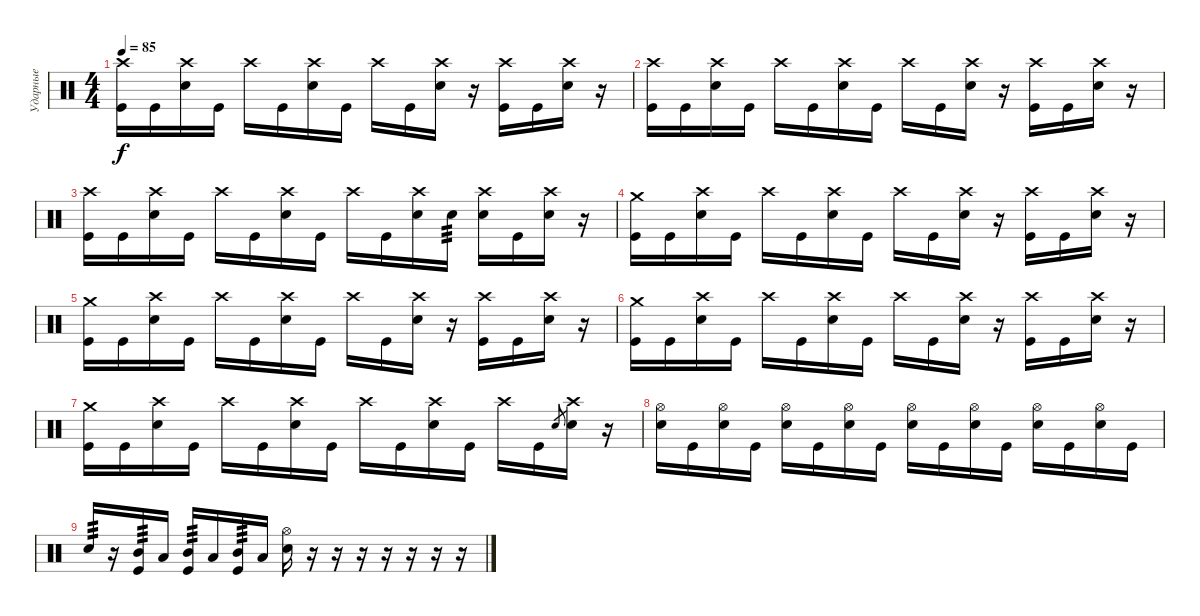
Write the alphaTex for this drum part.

\track ("Ударные" "Ударные") {instrument percussion}
\staff {score}
\articulation defaults
\ts (4 4)
\tempo 85
\clef neutral
\ks c
("Crash high (hit)" "Kick (hit)").16{dy f} "Kick (hit)".16 ("Crash high (hit)" "Electric Snare (hit)").16 "Kick (hit)".16 "Crash high (hit)".16 "Kick (hit)".16 ("Crash high (hit)" "Electric Snare (hit)").16 "Kick (hit)".16 "Crash high (hit)".16 "Kick (hit)".16 ("Crash high (hit)" "Electric Snare (hit)").16 r.16 ("Crash high (hit)" "Kick (hit)").16 "Kick (hit)".16 ("Crash high (hit)" "Electric Snare (hit)").16 r.16 |
("Crash high (hit)" "Kick (hit)").16 "Kick (hit)".16 ("Crash high (hit)" "Electric Snare (hit)").16 "Kick (hit)".16 "Crash high (hit)".16 "Kick (hit)".16 ("Crash high (hit)" "Electric Snare (hit)").16 "Kick (hit)".16 "Crash high (hit)".16 "Kick (hit)".16 ("Crash high (hit)" "Electric Snare (hit)").16 r.16 ("Crash high (hit)" "Kick (hit)").16 "Kick (hit)".16 ("Crash high (hit)" "Electric Snare (hit)").16 r.16 |
("Crash high (hit)" "Kick (hit)").16 "Kick (hit)".16 ("Crash high (hit)" "Electric Snare (hit)").16 "Kick (hit)".16 "Crash high (hit)".16 "Kick (hit)".16 ("Crash high (hit)" "Electric Snare (hit)").16 "Kick (hit)".16 "Crash high (hit)".16 "Kick (hit)".16 ("Crash high (hit)" "Electric Snare (hit)").16 "Electric Snare (hit)".16{tp 3} ("Crash high (hit)" "Electric Snare (hit)").16 "Kick (hit)".16 ("Crash high (hit)" "Electric Snare (hit)").16 r.16 |
("Crash medium (hit)" "Kick (hit)").16 "Kick (hit)".16 ("Crash high (hit)" "Electric Snare (hit)").16 "Kick (hit)".16 "Crash high (hit)".16 "Kick (hit)".16 ("Crash high (hit)" "Electric Snare (hit)").16 "Kick (hit)".16 "Crash high (hit)".16 "Kick (hit)".16 ("Crash high (hit)" "Electric Snare (hit)").16 r.16 ("Crash high (hit)" "Kick (hit)").16 "Kick (hit)".16 ("Crash high (hit)" "Electric Snare (hit)").16 r.16 |
("Crash medium (hit)" "Kick (hit)").16 "Kick (hit)".16 ("Crash high (hit)" "Electric Snare (hit)").16 "Kick (hit)".16 "Crash high (hit)".16 "Kick (hit)".16 ("Crash high (hit)" "Electric Snare (hit)").16 "Kick (hit)".16 "Crash high (hit)".16 "Kick (hit)".16 ("Crash high (hit)" "Electric Snare (hit)").16 r.16 ("Crash high (hit)" "Kick (hit)").16 "Kick (hit)".16 ("Crash high (hit)" "Electric Snare (hit)").16 r.16 |
("Crash medium (hit)" "Kick (hit)").16 "Kick (hit)".16 ("Crash high (hit)" "Electric Snare (hit)").16 "Kick (hit)".16 "Crash high (hit)".16 "Kick (hit)".16 ("Crash high (hit)" "Electric Snare (hit)").16 "Kick (hit)".16 "Crash high (hit)".16 "Kick (hit)".16 ("Crash high (hit)" "Electric Snare (hit)").16 r.16 ("Crash high (hit)" "Kick (hit)").16 "Kick (hit)".16 ("Crash high (hit)" "Electric Snare (hit)").16 r.16 |
("Crash medium (hit)" "Kick (hit)").16 "Kick (hit)".16 ("Crash high (hit)" "Electric Snare (hit)").16 "Kick (hit)".16 "Crash high (hit)".16 "Kick (hit)".16 ("Crash high (hit)" "Electric Snare (hit)").16 "Kick (hit)".16 "Crash high (hit)".16 "Kick (hit)".16 ("Crash high (hit)" "Electric Snare (hit)").16 "Kick (hit)".16 "Crash high (hit)".16 "Kick (hit)".16 "Electric Snare (hit)".8{gr} ("Crash high (hit)" "Electric Snare (hit)").16 r.16 |
("Hi-Hat (open)" "Electric Snare (hit)").16 "Kick (hit)".16 ("Hi-Hat (open)" "Electric Snare (hit)").16 "Kick (hit)".16 ("Hi-Hat (open)" "Electric Snare (hit)").16 "Kick (hit)".16 ("Hi-Hat (open)" "Electric Snare (hit)").16 "Kick (hit)".16 ("Hi-Hat (open)" "Electric Snare (hit)").16 "Kick (hit)".16 ("Hi-Hat (open)" "Electric Snare (hit)").16 "Kick (hit)".16 ("Hi-Hat (open)" "Electric Snare (hit)").16 "Kick (hit)".16 ("Hi-Hat (open)" "Electric Snare (hit)").16 "Kick (hit)".16 |
"Electric Snare (hit)".16{tp 3} r.16 ("Kick (hit)" "Mid Tom (hit)").16{tp 3} "Low Tom (hit)".16 ("Kick (hit)" "Mid Tom (hit)").16{tp 3} "Low Tom (hit)".16 ("Kick (hit)" "Mid Tom (hit)").16{tp 3} "Low Tom (hit)".16 ("Hi-Hat (open)" "Electric Snare (hit)").16 r.16 r.16 r.16 r.16 r.16 r.16 r.16
